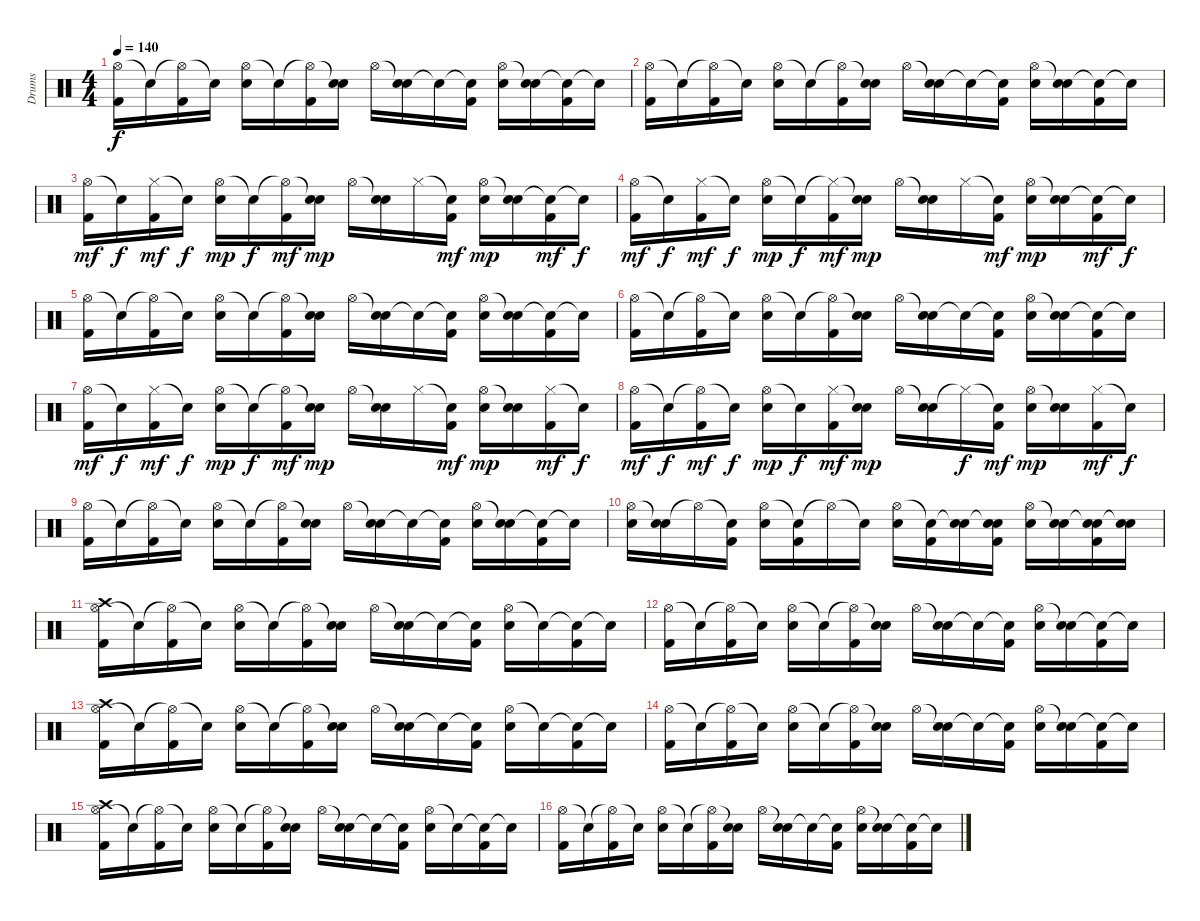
\track ("Drums" "Drums") {instrument percussion}
\staff {score}
\articulation defaults
\ts (4 4)
\tempo 140
\clef neutral
\ks c
("Hi-Hat (open)" "Kick (hit) 2").16{dy f} "Snare (hit)"{t}.16 ("Hi-Hat (open)"{t} "Kick (hit) 2").16 "Snare (hit)"{t}.16 ("Hi-Hat (open)" "Electric Snare (hit)").16 "Snare (hit)"{t}.16 ("Hi-Hat (open)"{t} "Kick (hit) 2").16 ("Snare (hit)"{t} "Electric Snare (hit)").16 "Hi-Hat (open)".16 ("Snare (hit)"{t} "Electric Snare (hit)").16 "Snare (hit)"{t}.16 ("Snare (hit)"{t} "Kick (hit) 2").16 ("Hi-Hat (open)" "Electric Snare (hit)").16 ("Snare (hit)"{t} "Electric Snare (hit)").16 ("Snare (hit)"{t} "Kick (hit) 2").16 "Snare (hit)"{t}.16 |
("Hi-Hat (open)" "Kick (hit) 2").16 "Snare (hit)"{t}.16 ("Hi-Hat (open)"{t} "Kick (hit) 2").16 "Snare (hit)"{t}.16 ("Hi-Hat (open)" "Electric Snare (hit)").16 "Snare (hit)"{t}.16 ("Hi-Hat (open)"{t} "Kick (hit) 2").16 ("Snare (hit)"{t} "Electric Snare (hit)").16 "Hi-Hat (open)".16 ("Snare (hit)"{t} "Electric Snare (hit)").16 "Snare (hit)"{t}.16 ("Snare (hit)"{t} "Kick (hit) 2").16 ("Hi-Hat (open)" "Electric Snare (hit)").16 ("Snare (hit)"{t} "Electric Snare (hit)").16 ("Snare (hit)"{t} "Kick (hit) 2").16 "Snare (hit)"{t}.16 |
("Hi-Hat (open)" "Kick (hit) 2").16{dy mf} "Snare (hit)"{t}.16{dy f} ("Hi-Hat (closed)" "Kick (hit) 2").16{dy mf} "Snare (hit)"{t}.16{dy f} ("Hi-Hat (open)" "Electric Snare (hit)").16{dy mp} "Snare (hit)"{t}.16{dy f} ("Hi-Hat (open)"{t} "Kick (hit) 2").16{dy mf} ("Snare (hit)"{t} "Electric Snare (hit)").16{dy mp} "Hi-Hat (open)".16 ("Snare (hit)"{t} "Electric Snare (hit)").16 "Hi-Hat (closed)".16 ("Snare (hit)"{t} "Kick (hit) 2").16{dy mf} ("Hi-Hat (open)" "Electric Snare (hit)").16{dy mp} ("Snare (hit)"{t} "Electric Snare (hit)").16 ("Snare (hit)"{t} "Kick (hit) 2").16{dy mf} "Snare (hit)"{t}.16{dy f} |
("Hi-Hat (open)" "Kick (hit) 2").16{dy mf} "Snare (hit)"{t}.16{dy f} ("Hi-Hat (closed)" "Kick (hit) 2").16{dy mf} "Snare (hit)"{t}.16{dy f} ("Hi-Hat (open)" "Electric Snare (hit)").16{dy mp} "Snare (hit)"{t}.16{dy f} ("Hi-Hat (closed)"{t} "Kick (hit) 2").16{dy mf} ("Snare (hit)"{t} "Electric Snare (hit)").16{dy mp} "Hi-Hat (open)".16 ("Snare (hit)"{t} "Electric Snare (hit)").16 "Hi-Hat (closed)".16 ("Snare (hit)"{t} "Kick (hit) 2").16{dy mf} ("Hi-Hat (open)" "Electric Snare (hit)").16{dy mp} ("Snare (hit)"{t} "Electric Snare (hit)").16 ("Snare (hit)"{t} "Kick (hit) 2").16{dy mf} "Snare (hit)"{t}.16{dy f} |
("Hi-Hat (open)" "Kick (hit) 2").16 "Snare (hit)"{t}.16 ("Hi-Hat (open)"{t} "Kick (hit) 2").16 "Snare (hit)"{t}.16 ("Hi-Hat (open)" "Electric Snare (hit)").16 "Snare (hit)"{t}.16 ("Hi-Hat (open)"{t} "Kick (hit) 2").16 ("Snare (hit)"{t} "Electric Snare (hit)").16 "Hi-Hat (open)".16 ("Snare (hit)"{t} "Electric Snare (hit)").16 "Snare (hit)"{t}.16 ("Snare (hit)"{t} "Kick (hit) 2").16 ("Hi-Hat (open)" "Electric Snare (hit)").16 ("Snare (hit)"{t} "Electric Snare (hit)").16 ("Snare (hit)"{t} "Kick (hit) 2").16 "Snare (hit)"{t}.16 |
("Hi-Hat (open)" "Kick (hit) 2").16 "Snare (hit)"{t}.16 ("Hi-Hat (open)"{t} "Kick (hit) 2").16 "Snare (hit)"{t}.16 ("Hi-Hat (open)" "Electric Snare (hit)").16 "Snare (hit)"{t}.16 ("Hi-Hat (open)"{t} "Kick (hit) 2").16 ("Snare (hit)"{t} "Electric Snare (hit)").16 "Hi-Hat (open)".16 ("Snare (hit)"{t} "Electric Snare (hit)").16 "Snare (hit)"{t}.16 ("Snare (hit)"{t} "Kick (hit) 2").16 ("Hi-Hat (open)" "Electric Snare (hit)").16 ("Snare (hit)"{t} "Electric Snare (hit)").16 ("Snare (hit)"{t} "Kick (hit) 2").16 "Snare (hit)"{t}.16 |
("Hi-Hat (open)" "Kick (hit) 2").16{dy mf} "Snare (hit)"{t}.16{dy f} ("Hi-Hat (closed)" "Kick (hit) 2").16{dy mf} "Snare (hit)"{t}.16{dy f} ("Hi-Hat (open)" "Electric Snare (hit)").16{dy mp} "Snare (hit)"{t}.16{dy f} ("Hi-Hat (open)"{t} "Kick (hit) 2").16{dy mf} ("Snare (hit)"{t} "Electric Snare (hit)").16{dy mp} "Hi-Hat (open)".16 ("Snare (hit)"{t} "Electric Snare (hit)").16 "Hi-Hat (closed)".16 ("Snare (hit)"{t} "Kick (hit) 2").16{dy mf} ("Hi-Hat (open)" "Electric Snare (hit)").16{dy mp} ("Snare (hit)"{t} "Electric Snare (hit)").16 ("Hi-Hat (closed)" "Kick (hit) 2").16{dy mf} "Snare (hit)"{t}.16{dy f} |
("Hi-Hat (open)" "Kick (hit) 2").16{dy mf} "Snare (hit)"{t}.16{dy f} ("Hi-Hat (open)"{t} "Kick (hit) 2").16{dy mf} "Snare (hit)"{t}.16{dy f} ("Hi-Hat (open)" "Electric Snare (hit)").16{dy mp} "Snare (hit)"{t}.16{dy f} ("Hi-Hat (closed)" "Kick (hit) 2").16{dy mf} ("Snare (hit)"{t} "Electric Snare (hit)").16{dy mp} "Hi-Hat (open)".16 ("Snare (hit)"{t} "Electric Snare (hit)").16 "Hi-Hat (closed)"{t}.16{dy f} ("Snare (hit)"{t} "Kick (hit) 2").16{dy mf} ("Hi-Hat (open)" "Electric Snare (hit)").16{dy mp} ("Snare (hit)"{t} "Electric Snare (hit)").16 ("Hi-Hat (closed)" "Kick (hit) 2").16{dy mf} "Snare (hit)"{t}.16{dy f} |
("Hi-Hat (open)" "Kick (hit) 2").16 "Snare (hit)"{t}.16 ("Hi-Hat (open)"{t} "Kick (hit) 2").16 "Snare (hit)"{t}.16 ("Hi-Hat (open)" "Electric Snare (hit)").16 "Snare (hit)"{t}.16 ("Hi-Hat (open)"{t} "Kick (hit) 2").16 ("Snare (hit)"{t} "Electric Snare (hit)").16 "Hi-Hat (open)".16 ("Snare (hit)"{t} "Electric Snare (hit)").16 "Snare (hit)"{t}.16 ("Snare (hit)"{t} "Kick (hit) 2").16 ("Hi-Hat (open)" "Electric Snare (hit)").16 ("Snare (hit)"{t} "Electric Snare (hit)").16 ("Snare (hit)"{t} "Kick (hit) 2").16 "Snare (hit)"{t}.16 |
("Hi-Hat (open)" "Electric Snare (hit)").16 ("Snare (hit)"{t} "Electric Snare (hit)").16 "Hi-Hat (open)"{t}.16 ("Snare (hit)"{t} "Kick (hit) 2").16 ("Hi-Hat (open)" "Electric Snare (hit)").16 ("Snare (hit)"{t} "Kick (hit) 2").16 "Hi-Hat (open)"{t}.16 "Snare (hit)"{t}.16 ("Hi-Hat (open)" "Electric Snare (hit)").16 ("Snare (hit)"{t} "Kick (hit) 2").16 ("Snare (hit)"{t} "Electric Snare (hit)").16 ("Snare (hit)"{t} "Kick (hit) 2" "Electric Snare (hit)").16 ("Hi-Hat (open)" "Electric Snare (hit)").16 ("Snare (hit)"{t} "Electric Snare (hit)").16 ("Snare (hit)"{t} "Kick (hit) 2" "Electric Snare (hit)").16 ("Snare (hit)"{t} "Electric Snare (hit)").16 |
("Hi-Hat (open)" "Kick (hit) 2" "Crash high (hit)").16 "Snare (hit)"{t}.16 ("Hi-Hat (open)"{t} "Kick (hit) 2").16 "Snare (hit)"{t}.16 ("Hi-Hat (open)" "Electric Snare (hit)").16 "Snare (hit)"{t}.16 ("Hi-Hat (open)"{t} "Kick (hit) 2").16 ("Snare (hit)"{t} "Electric Snare (hit)").16 "Hi-Hat (open)".16 ("Snare (hit)"{t} "Electric Snare (hit)").16 "Snare (hit)"{t}.16 ("Snare (hit)"{t} "Kick (hit) 2").16 ("Hi-Hat (open)" "Electric Snare (hit)").16 "Snare (hit)"{t}.16 ("Snare (hit)"{t} "Kick (hit) 2").16 "Snare (hit)"{t}.16 |
("Hi-Hat (open)" "Kick (hit) 2").16 "Snare (hit)"{t}.16 ("Hi-Hat (open)"{t} "Kick (hit) 2").16 "Snare (hit)"{t}.16 ("Hi-Hat (open)" "Electric Snare (hit)").16 "Snare (hit)"{t}.16 ("Hi-Hat (open)"{t} "Kick (hit) 2").16 ("Snare (hit)"{t} "Electric Snare (hit)").16 "Hi-Hat (open)".16 ("Snare (hit)"{t} "Electric Snare (hit)").16 "Snare (hit)"{t}.16 ("Snare (hit)"{t} "Kick (hit) 2").16 ("Hi-Hat (open)" "Electric Snare (hit)").16 ("Snare (hit)"{t} "Electric Snare (hit)").16 ("Snare (hit)"{t} "Kick (hit) 2").16 "Snare (hit)"{t}.16 |
("Hi-Hat (open)" "Kick (hit) 2" "Crash high (hit)").16 "Snare (hit)"{t}.16 ("Hi-Hat (open)"{t} "Kick (hit) 2").16 "Snare (hit)"{t}.16 ("Hi-Hat (open)" "Electric Snare (hit)").16 "Snare (hit)"{t}.16 ("Hi-Hat (open)"{t} "Kick (hit) 2").16 ("Snare (hit)"{t} "Electric Snare (hit)").16 "Hi-Hat (open)".16 ("Snare (hit)"{t} "Electric Snare (hit)").16 "Snare (hit)"{t}.16 ("Snare (hit)"{t} "Kick (hit) 2").16 ("Hi-Hat (open)" "Electric Snare (hit)").16 "Snare (hit)"{t}.16 ("Snare (hit)"{t} "Kick (hit) 2").16 "Snare (hit)"{t}.16 |
("Hi-Hat (open)" "Kick (hit) 2").16 "Snare (hit)"{t}.16 ("Hi-Hat (open)"{t} "Kick (hit) 2").16 "Snare (hit)"{t}.16 ("Hi-Hat (open)" "Electric Snare (hit)").16 "Snare (hit)"{t}.16 ("Hi-Hat (open)"{t} "Kick (hit) 2").16 ("Snare (hit)"{t} "Electric Snare (hit)").16 "Hi-Hat (open)".16 ("Snare (hit)"{t} "Electric Snare (hit)").16 "Snare (hit)"{t}.16 ("Snare (hit)"{t} "Kick (hit) 2").16 ("Hi-Hat (open)" "Electric Snare (hit)").16 ("Snare (hit)"{t} "Electric Snare (hit)").16 ("Snare (hit)"{t} "Kick (hit) 2").16 "Snare (hit)"{t}.16 |
("Hi-Hat (open)" "Kick (hit) 2" "Crash high (hit)").16 "Snare (hit)"{t}.16 ("Hi-Hat (open)"{t} "Kick (hit) 2").16 "Snare (hit)"{t}.16 ("Hi-Hat (open)" "Electric Snare (hit)").16 "Snare (hit)"{t}.16 ("Hi-Hat (open)"{t} "Kick (hit) 2").16 ("Snare (hit)"{t} "Electric Snare (hit)").16 "Hi-Hat (open)".16 ("Snare (hit)"{t} "Electric Snare (hit)").16 "Snare (hit)"{t}.16 ("Snare (hit)"{t} "Kick (hit) 2").16 ("Hi-Hat (open)" "Electric Snare (hit)").16 "Snare (hit)"{t}.16 ("Snare (hit)"{t} "Kick (hit) 2").16 "Snare (hit)"{t}.16 |
("Hi-Hat (open)" "Kick (hit) 2").16 "Snare (hit)"{t}.16 ("Hi-Hat (open)"{t} "Kick (hit) 2").16 "Snare (hit)"{t}.16 ("Hi-Hat (open)" "Electric Snare (hit)").16 "Snare (hit)"{t}.16 ("Hi-Hat (open)"{t} "Kick (hit) 2").16 ("Snare (hit)"{t} "Electric Snare (hit)").16 "Hi-Hat (open)".16 ("Snare (hit)"{t} "Electric Snare (hit)").16 "Snare (hit)"{t}.16 ("Snare (hit)"{t} "Kick (hit) 2").16 ("Hi-Hat (open)" "Electric Snare (hit)").16 ("Snare (hit)"{t} "Electric Snare (hit)").16 ("Snare (hit)"{t} "Kick (hit) 2").16 "Snare (hit)"{t}.16
